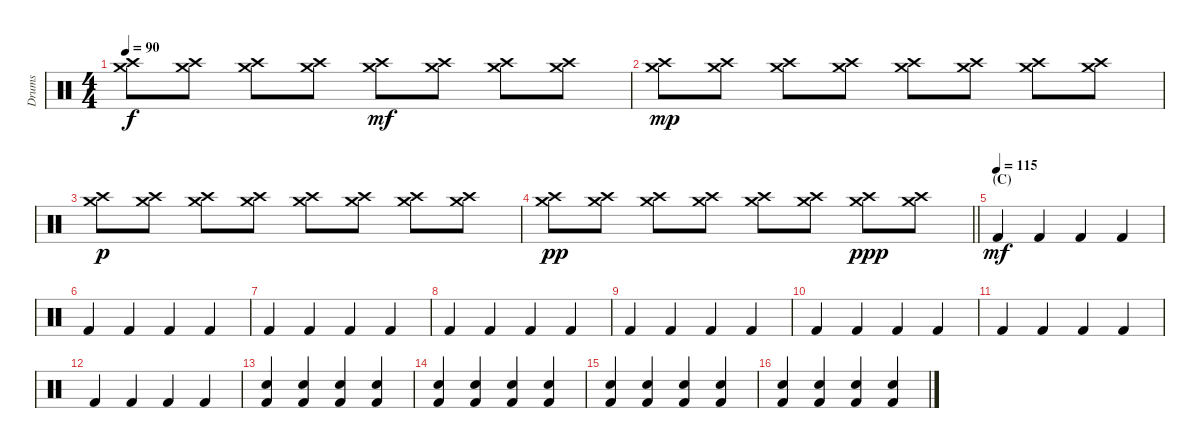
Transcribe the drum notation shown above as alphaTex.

\track ("Drums" "Drums") {instrument percussion}
\staff {score}
\articulation defaults
\ts (4 4)
\tempo 90
\clef neutral
\ks c
("Crash medium (hit)" "Crash high (hit)").8{dy f} ("Crash medium (hit)" "Crash high (hit)").8 ("Crash medium (hit)" "Crash high (hit)").8 ("Crash medium (hit)" "Crash high (hit)").8 ("Crash medium (hit)" "Crash high (hit)").8{dy mf} ("Crash medium (hit)" "Crash high (hit)").8 ("Crash medium (hit)" "Crash high (hit)").8 ("Crash medium (hit)" "Crash high (hit)").8 |
("Crash medium (hit)" "Crash high (hit)").8{dy mp} ("Crash medium (hit)" "Crash high (hit)").8 ("Crash medium (hit)" "Crash high (hit)").8 ("Crash medium (hit)" "Crash high (hit)").8 ("Crash medium (hit)" "Crash high (hit)").8 ("Crash medium (hit)" "Crash high (hit)").8 ("Crash medium (hit)" "Crash high (hit)").8 ("Crash medium (hit)" "Crash high (hit)").8 |
("Crash medium (hit)" "Crash high (hit)").8{dy p} ("Crash medium (hit)" "Crash high (hit)").8 ("Crash medium (hit)" "Crash high (hit)").8 ("Crash medium (hit)" "Crash high (hit)").8 ("Crash medium (hit)" "Crash high (hit)").8 ("Crash medium (hit)" "Crash high (hit)").8 ("Crash medium (hit)" "Crash high (hit)").8 ("Crash medium (hit)" "Crash high (hit)").8 |
\barLineRight lightlight
("Crash medium (hit)" "Crash high (hit)").8{dy pp} ("Crash medium (hit)" "Crash high (hit)").8 ("Crash medium (hit)" "Crash high (hit)").8 ("Crash medium (hit)" "Crash high (hit)").8 ("Crash medium (hit)" "Crash high (hit)").8 ("Crash medium (hit)" "Crash high (hit)").8 ("Crash medium (hit)" "Crash high (hit)").8{dy ppp} ("Crash medium (hit)" "Crash high (hit)").8 |
\section ("" "(C)")
\tempo (115)
"Kick (hit) 2".4{dy mf volume 1} "Kick (hit) 2".4{volume 3} "Kick (hit) 2".4 "Kick (hit) 2".4 |
"Kick (hit) 2".4 "Kick (hit) 2".4 "Kick (hit) 2".4 "Kick (hit) 2".4 |
"Kick (hit) 2".4 "Kick (hit) 2".4 "Kick (hit) 2".4 "Kick (hit) 2".4 |
"Kick (hit) 2".4 "Kick (hit) 2".4 "Kick (hit) 2".4 "Kick (hit) 2".4 |
"Kick (hit) 2".4{volume 6} "Kick (hit) 2".4 "Kick (hit) 2".4 "Kick (hit) 2".4 |
"Kick (hit) 2".4 "Kick (hit) 2".4 "Kick (hit) 2".4 "Kick (hit) 2".4 |
"Kick (hit) 2".4 "Kick (hit) 2".4 "Kick (hit) 2".4 "Kick (hit) 2".4 |
"Kick (hit) 2".4 "Kick (hit) 2".4 "Kick (hit) 2".4 "Kick (hit) 2".4 |
("Snare (hit) 2" "Kick (hit) 2").4 ("Snare (hit) 2" "Kick (hit) 2").4 ("Snare (hit) 2" "Kick (hit) 2").4 ("Snare (hit) 2" "Kick (hit) 2").4 |
("Snare (hit) 2" "Kick (hit) 2").4 ("Snare (hit) 2" "Kick (hit) 2").4 ("Snare (hit) 2" "Kick (hit) 2").4 ("Snare (hit) 2" "Kick (hit) 2").4 |
("Snare (hit) 2" "Kick (hit) 2").4 ("Snare (hit) 2" "Kick (hit) 2").4 ("Snare (hit) 2" "Kick (hit) 2").4 ("Snare (hit) 2" "Kick (hit) 2").4 |
("Snare (hit) 2" "Kick (hit) 2").4 ("Snare (hit) 2" "Kick (hit) 2").4 ("Snare (hit) 2" "Kick (hit) 2").4 ("Snare (hit) 2" "Kick (hit) 2").4
